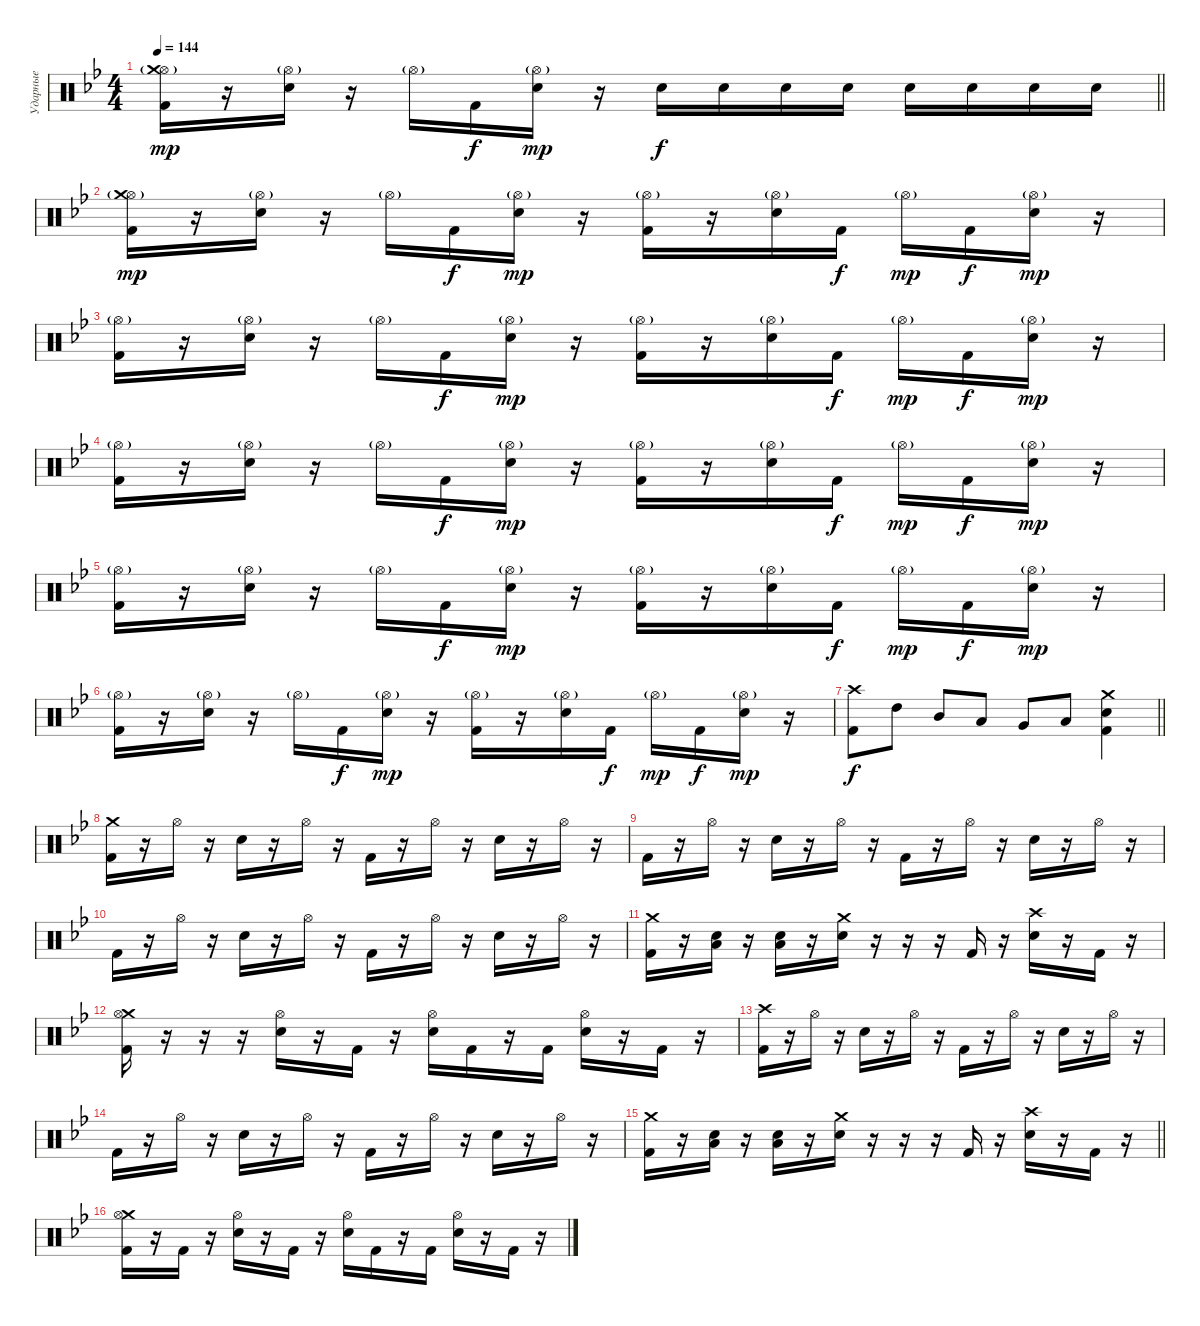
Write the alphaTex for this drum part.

\track ("Ударные" "Ударные") {instrument percussion}
\staff {score}
\articulation defaults
\ts (4 4)
\tempo 144
\clef neutral
\barLineRight lightlight
\ks gminor
("Hi-Hat (open)"{g} "Crash medium (hit)" "Kick (hit) 2").16{dy mp} r.16 ("Hi-Hat (open)"{g} "Electric Snare (hit)").16 r.16 "Hi-Hat (open)"{g}.16 "Kick (hit) 2".16{dy f} ("Hi-Hat (open)"{g} "Electric Snare (hit)").16{dy mp} r.16 "Electric Snare (hit)".16{dy f} "Electric Snare (hit)".16 "Electric Snare (hit)".16 "Electric Snare (hit)".16 "Electric Snare (hit)".16 "Electric Snare (hit)".16 "Electric Snare (hit)".16 "Electric Snare (hit)".16 |
("Hi-Hat (open)"{g} "Crash medium (hit)" "Kick (hit) 2").16{dy mp} r.16 ("Hi-Hat (open)"{g} "Electric Snare (hit)").16 r.16 "Hi-Hat (open)"{g}.16 "Kick (hit) 2".16{dy f} ("Hi-Hat (open)"{g} "Electric Snare (hit)").16{dy mp} r.16 ("Hi-Hat (open)"{g} "Kick (hit) 2").16 r.16 ("Hi-Hat (open)"{g} "Electric Snare (hit)").16 "Kick (hit) 2".16{dy f} "Hi-Hat (open)"{g}.16{dy mp} "Kick (hit) 2".16{dy f} ("Hi-Hat (open)"{g} "Electric Snare (hit)").16{dy mp} r.16 |
("Hi-Hat (open)"{g} "Kick (hit) 2").16 r.16 ("Hi-Hat (open)"{g} "Electric Snare (hit)").16 r.16 "Hi-Hat (open)"{g}.16 "Kick (hit) 2".16{dy f} ("Hi-Hat (open)"{g} "Electric Snare (hit)").16{dy mp} r.16 ("Hi-Hat (open)"{g} "Kick (hit) 2").16 r.16 ("Hi-Hat (open)"{g} "Electric Snare (hit)").16 "Kick (hit) 2".16{dy f} "Hi-Hat (open)"{g}.16{dy mp} "Kick (hit) 2".16{dy f} ("Hi-Hat (open)"{g} "Electric Snare (hit)").16{dy mp} r.16 |
("Hi-Hat (open)"{g} "Kick (hit) 2").16 r.16 ("Hi-Hat (open)"{g} "Electric Snare (hit)").16 r.16 "Hi-Hat (open)"{g}.16 "Kick (hit) 2".16{dy f} ("Hi-Hat (open)"{g} "Electric Snare (hit)").16{dy mp} r.16 ("Hi-Hat (open)"{g} "Kick (hit) 2").16 r.16 ("Hi-Hat (open)"{g} "Electric Snare (hit)").16 "Kick (hit) 2".16{dy f} "Hi-Hat (open)"{g}.16{dy mp} "Kick (hit) 2".16{dy f} ("Hi-Hat (open)"{g} "Electric Snare (hit)").16{dy mp} r.16 |
("Hi-Hat (open)"{g} "Kick (hit) 2").16 r.16 ("Hi-Hat (open)"{g} "Electric Snare (hit)").16 r.16 "Hi-Hat (open)"{g}.16 "Kick (hit) 2".16{dy f} ("Hi-Hat (open)"{g} "Electric Snare (hit)").16{dy mp} r.16 ("Hi-Hat (open)"{g} "Kick (hit) 2").16 r.16 ("Hi-Hat (open)"{g} "Electric Snare (hit)").16 "Kick (hit) 2".16{dy f} "Hi-Hat (open)"{g}.16{dy mp} "Kick (hit) 2".16{dy f} ("Hi-Hat (open)"{g} "Electric Snare (hit)").16{dy mp} r.16 |
("Hi-Hat (open)"{g} "Kick (hit) 2").16 r.16 ("Hi-Hat (open)"{g} "Electric Snare (hit)").16 r.16 "Hi-Hat (open)"{g}.16 "Kick (hit) 2".16{dy f} ("Hi-Hat (open)"{g} "Electric Snare (hit)").16{dy mp} r.16 ("Hi-Hat (open)"{g} "Kick (hit) 2").16 r.16 ("Hi-Hat (open)"{g} "Electric Snare (hit)").16 "Kick (hit) 2".16{dy f} "Hi-Hat (open)"{g}.16{dy mp} "Kick (hit) 2".16{dy f} ("Hi-Hat (open)"{g} "Electric Snare (hit)").16{dy mp} r.16 |
\barLineRight lightlight
("Crash high (hit)" "Kick (hit) 2").8{dy f} "High Tom (hit)".8 "Mid Tom (hit)".8 "Low Tom (hit)".8 "Very Low Tom (hit)".8 "Low Floor Tom (hit)".8 ("Crash medium (hit)" "Electric Snare (hit)" "Kick (hit) 2").4 |
\section ("" "")
("Crash medium (hit)" "Kick (hit) 2").16 r.16 "Hi-Hat (open)".16 r.16 "Electric Snare (hit)".16 r.16 "Hi-Hat (open)".16 r.16 "Kick (hit) 2".16 r.16 "Hi-Hat (open)".16 r.16 "Electric Snare (hit)".16 r.16 "Hi-Hat (open)".16 r.16 |
"Kick (hit) 2".16 r.16 "Hi-Hat (open)".16 r.16 "Electric Snare (hit)".16 r.16 "Hi-Hat (open)".16 r.16 "Kick (hit) 2".16 r.16 "Hi-Hat (open)".16 r.16 "Electric Snare (hit)".16 r.16 "Hi-Hat (open)".16 r.16 |
"Kick (hit) 2".16 r.16 "Hi-Hat (open)".16 r.16 "Electric Snare (hit)".16 r.16 "Hi-Hat (open)".16 r.16 "Kick (hit) 2".16 r.16 "Hi-Hat (open)".16 r.16 "Electric Snare (hit)".16 r.16 "Hi-Hat (open)".16 r.16 |
("Crash medium (hit)" "Kick (hit) 2").16 r.16 ("Electric Snare (hit)" "Low Tom (hit)").16 r.16 ("Electric Snare (hit)" "Low Tom (hit)").16 r.16 ("Crash medium (hit)" "Electric Snare (hit)").16 r.16 r.16 r.16 "Kick (hit) 2".16 r.16 ("Crash high (hit)" "Electric Snare (hit)").16 r.16 "Kick (hit) 2".16 r.16 |
("Crash medium (hit)" "Kick (hit) 2" "Hi-Hat (open)").16 r.16 r.16 r.16 ("Electric Snare (hit)" "Hi-Hat (open)").16 r.16 "Kick (hit) 2".16 r.16 ("Hi-Hat (open)" "Electric Snare (hit)").16 "Kick (hit) 2".16 r.16 "Kick (hit) 2".16 ("Hi-Hat (open)" "Electric Snare (hit)").16 r.16 "Kick (hit) 2".16 r.16 |
("Crash high (hit)" "Kick (hit) 2").16 r.16 "Hi-Hat (open)".16 r.16 "Electric Snare (hit)".16 r.16 "Hi-Hat (open)".16 r.16 "Kick (hit) 2".16 r.16 "Hi-Hat (open)".16 r.16 "Electric Snare (hit)".16 r.16 "Hi-Hat (open)".16 r.16 |
"Kick (hit) 2".16 r.16 "Hi-Hat (open)".16 r.16 "Electric Snare (hit)".16 r.16 "Hi-Hat (open)".16 r.16 "Kick (hit) 2".16 r.16 "Hi-Hat (open)".16 r.16 "Electric Snare (hit)".16 r.16 "Hi-Hat (open)".16 r.16 |
\barLineRight lightlight
("Crash medium (hit)" "Kick (hit) 2").16 r.16 ("Electric Snare (hit)" "Low Tom (hit)").16 r.16 ("Electric Snare (hit)" "Low Tom (hit)").16 r.16 ("Crash medium (hit)" "Electric Snare (hit)").16 r.16 r.16 r.16 "Kick (hit) 2".16 r.16 ("Crash high (hit)" "Electric Snare (hit)").16 r.16 "Kick (hit) 2".16 r.16 |
\section ("" "")
("Crash medium (hit)" "Kick (hit) 2" "Hi-Hat (open)").16 r.16 "Kick (hit) 2".16 r.16 ("Electric Snare (hit)" "Hi-Hat (open)").16 r.16 "Kick (hit) 2".16 r.16 ("Electric Snare (hit)" "Hi-Hat (open)").16 "Kick (hit) 2".16 r.16 "Kick (hit) 2".16 ("Electric Snare (hit)" "Hi-Hat (open)").16 r.16 "Kick (hit) 2".16 r.16
